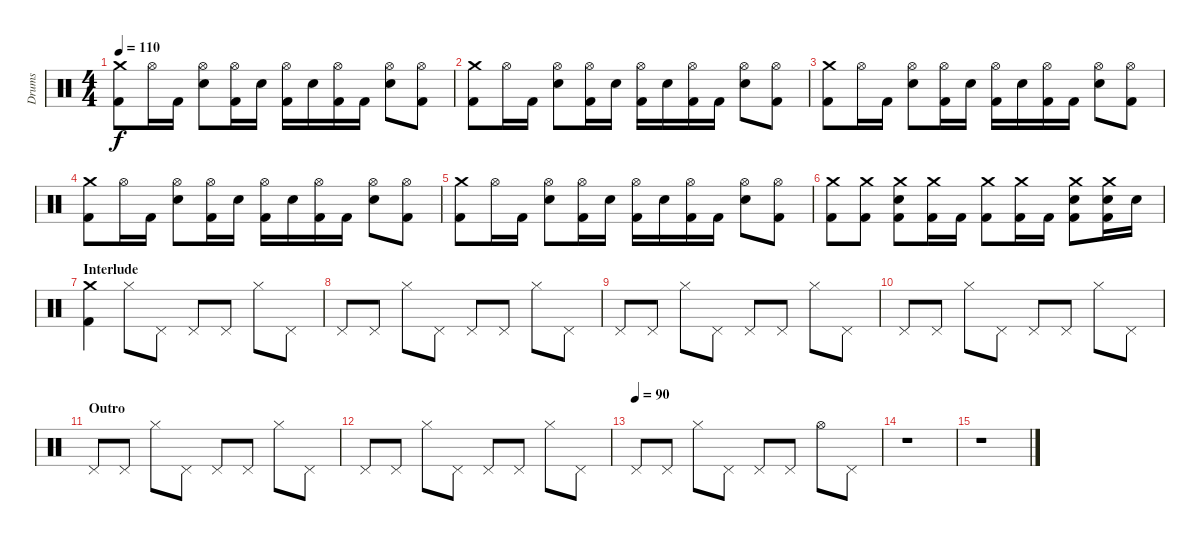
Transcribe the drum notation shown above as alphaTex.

\track ("Drums" "Drums") {instrument percussion}
\staff {score}
\articulation defaults
\ts (4 4)
\tempo 110
\clef neutral
\ks c
("Crash medium (hit)" "Kick (hit) 2").8{dy f} "Hi-Hat (open)".16 "Kick (hit) 2".16 ("Hi-Hat (open)" "Electric Snare (hit)").8 ("Hi-Hat (open)" "Kick (hit) 2").16 "Electric Snare (hit)".16 ("Hi-Hat (open)" "Kick (hit) 2").16 "Electric Snare (hit)".16 ("Hi-Hat (open)" "Kick (hit) 2").16 "Kick (hit) 2".16 ("Hi-Hat (open)" "Electric Snare (hit)").8 ("Hi-Hat (open)" "Kick (hit) 2").8 |
("Crash medium (hit)" "Kick (hit) 2").8 "Hi-Hat (open)".16 "Kick (hit) 2".16 ("Hi-Hat (open)" "Electric Snare (hit)").8 ("Hi-Hat (open)" "Kick (hit) 2").16 "Electric Snare (hit)".16 ("Hi-Hat (open)" "Kick (hit) 2").16 "Electric Snare (hit)".16 ("Hi-Hat (open)" "Kick (hit) 2").16 "Kick (hit) 2".16 ("Hi-Hat (open)" "Electric Snare (hit)").8 ("Hi-Hat (open)" "Kick (hit) 2").8 |
("Crash medium (hit)" "Kick (hit) 2").8 "Hi-Hat (open)".16 "Kick (hit) 2".16 ("Hi-Hat (open)" "Electric Snare (hit)").8 ("Hi-Hat (open)" "Kick (hit) 2").16 "Electric Snare (hit)".16 ("Hi-Hat (open)" "Kick (hit) 2").16 "Electric Snare (hit)".16 ("Hi-Hat (open)" "Kick (hit) 2").16 "Kick (hit) 2".16 ("Hi-Hat (open)" "Electric Snare (hit)").8 ("Hi-Hat (open)" "Kick (hit) 2").8 |
("Crash medium (hit)" "Kick (hit) 2").8 "Hi-Hat (open)".16 "Kick (hit) 2".16 ("Hi-Hat (open)" "Electric Snare (hit)").8 ("Hi-Hat (open)" "Kick (hit) 2").16 "Electric Snare (hit)".16 ("Hi-Hat (open)" "Kick (hit) 2").16 "Electric Snare (hit)".16 ("Hi-Hat (open)" "Kick (hit) 2").16 "Kick (hit) 2".16 ("Hi-Hat (open)" "Electric Snare (hit)").8 ("Hi-Hat (open)" "Kick (hit) 2").8 |
("Crash medium (hit)" "Kick (hit) 2").8 "Hi-Hat (open)".16 "Kick (hit) 2".16 ("Hi-Hat (open)" "Electric Snare (hit)").8 ("Hi-Hat (open)" "Kick (hit) 2").16 "Electric Snare (hit)".16 ("Hi-Hat (open)" "Kick (hit) 2").16 "Electric Snare (hit)".16 ("Hi-Hat (open)" "Kick (hit) 2").16 "Kick (hit) 2".16 ("Hi-Hat (open)" "Electric Snare (hit)").8 ("Hi-Hat (open)" "Kick (hit) 2").8 |
("Crash medium (hit)" "Kick (hit) 2").8 ("Crash medium (hit)" "Kick (hit) 2").8 ("Crash medium (hit)" "Kick (hit) 2" "Electric Snare (hit)").8 ("Crash medium (hit)" "Kick (hit) 2").16 "Kick (hit) 2".16 ("Crash medium (hit)" "Kick (hit) 2").8 ("Crash medium (hit)" "Kick (hit) 2").16 "Kick (hit) 2".16 ("Crash medium (hit)" "Kick (hit) 2" "Electric Snare (hit)").8 ("Crash medium (hit)" "Electric Snare (hit)" "Kick (hit) 2").16 "Electric Snare (hit)".16 |
\section ("" "Interlude")
("Crash medium (hit)" "Kick (hit) 2").4 "Hi-Hat (closed)".8 "Pedal Hi-Hat (hit)".8 "Pedal Hi-Hat (hit)".8 "Pedal Hi-Hat (hit)".8 "Hi-Hat (closed)".8 "Pedal Hi-Hat (hit)".8 |
"Pedal Hi-Hat (hit)".8 "Pedal Hi-Hat (hit)".8 "Hi-Hat (closed)".8 "Pedal Hi-Hat (hit)".8 "Pedal Hi-Hat (hit)".8 "Pedal Hi-Hat (hit)".8 "Hi-Hat (closed)".8 "Pedal Hi-Hat (hit)".8 |
"Pedal Hi-Hat (hit)".8 "Pedal Hi-Hat (hit)".8 "Hi-Hat (closed)".8 "Pedal Hi-Hat (hit)".8 "Pedal Hi-Hat (hit)".8 "Pedal Hi-Hat (hit)".8 "Hi-Hat (closed)".8 "Pedal Hi-Hat (hit)".8 |
"Pedal Hi-Hat (hit)".8 "Pedal Hi-Hat (hit)".8 "Hi-Hat (closed)".8 "Pedal Hi-Hat (hit)".8 "Pedal Hi-Hat (hit)".8 "Pedal Hi-Hat (hit)".8 "Hi-Hat (closed)".8 "Pedal Hi-Hat (hit)".8 |
\section ("" "Outro")
"Pedal Hi-Hat (hit)".8 "Pedal Hi-Hat (hit)".8 "Hi-Hat (closed)".8 "Pedal Hi-Hat (hit)".8 "Pedal Hi-Hat (hit)".8 "Pedal Hi-Hat (hit)".8 "Hi-Hat (closed)".8 "Pedal Hi-Hat (hit)".8 |
"Pedal Hi-Hat (hit)".8 "Pedal Hi-Hat (hit)".8 "Hi-Hat (closed)".8 "Pedal Hi-Hat (hit)".8 "Pedal Hi-Hat (hit)".8 "Pedal Hi-Hat (hit)".8 "Hi-Hat (closed)".8 "Pedal Hi-Hat (hit)".8 |
\tempo (90)
"Pedal Hi-Hat (hit)".8 "Pedal Hi-Hat (hit)".8 "Hi-Hat (closed)".8 "Pedal Hi-Hat (hit)".8 "Pedal Hi-Hat (hit)".8 "Pedal Hi-Hat (hit)".8 "Hi-Hat (open)".8 "Pedal Hi-Hat (hit)".8 |
r.1 |
r.1
